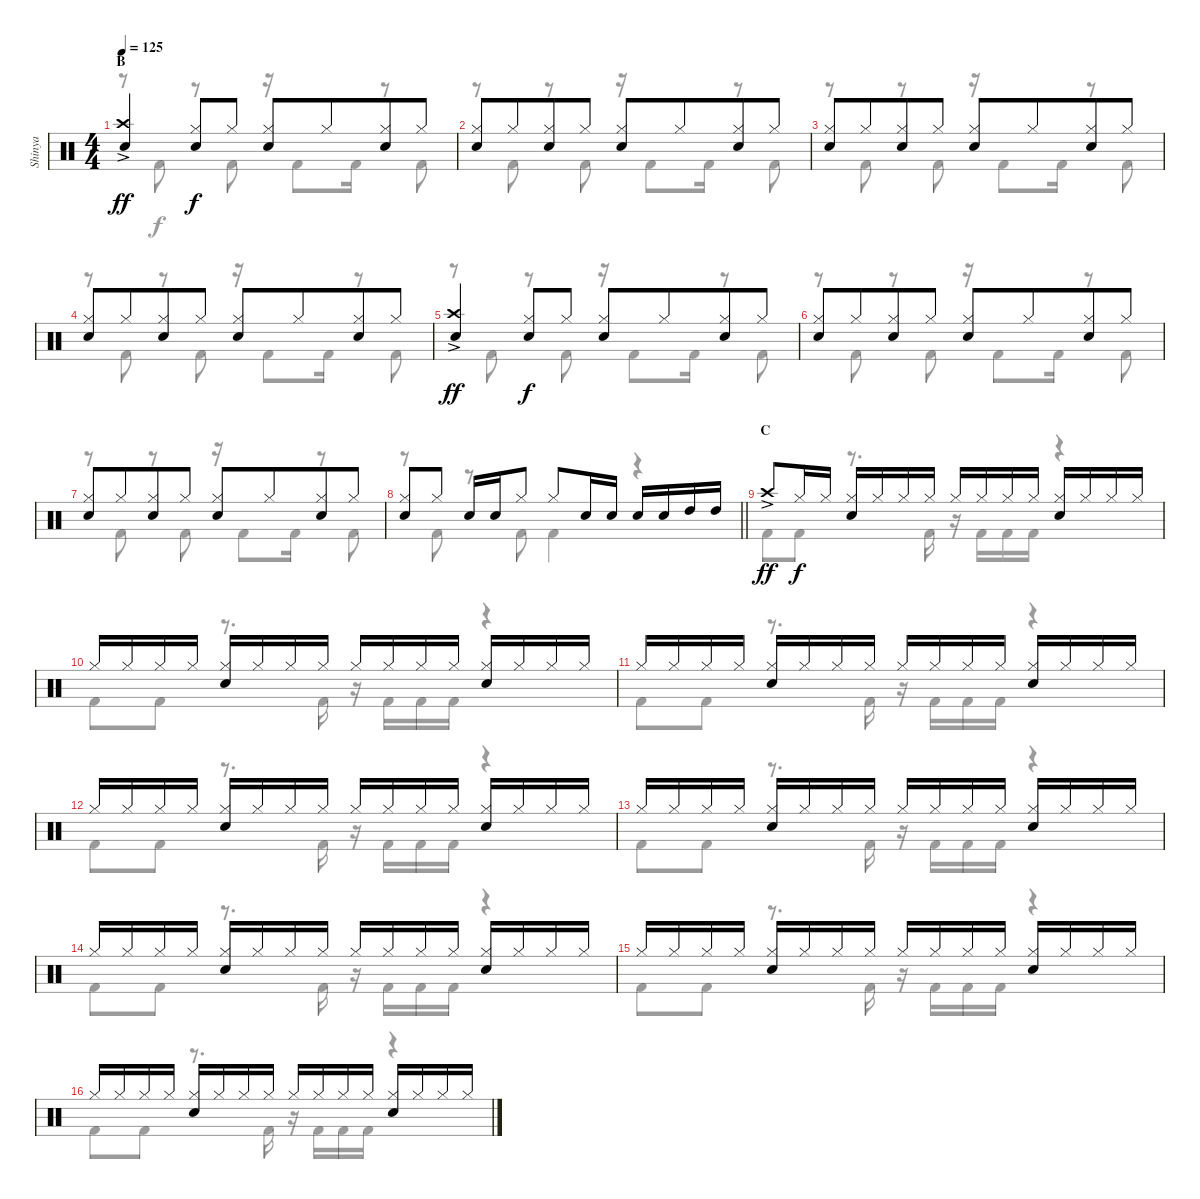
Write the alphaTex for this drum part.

\track ("Shinya" "Shinya") {instrument percussion}
\staff {score}
\articulation defaults
\voice
\ts (4 4)
\section ("" "B")
\tempo 125
\clef neutral
\ks c
("Crash high (hit)"{ac} "Snare (hit) 2").4{dy ff} ("Hi-Hat (closed)" "Snare (hit) 2").8{dy f} "Hi-Hat (closed)".8 ("Hi-Hat (closed)" "Snare (hit) 2").8 "Hi-Hat (closed)".8{beam merge} ("Hi-Hat (closed)" "Snare (hit) 2").8 "Hi-Hat (closed)".8 |
("Hi-Hat (closed)" "Snare (hit) 2").8 "Hi-Hat (closed)".8{beam merge} ("Hi-Hat (closed)" "Snare (hit) 2").8 "Hi-Hat (closed)".8 ("Hi-Hat (closed)" "Snare (hit) 2").8 "Hi-Hat (closed)".8{beam merge} ("Hi-Hat (closed)" "Snare (hit) 2").8 "Hi-Hat (closed)".8 |
("Hi-Hat (closed)" "Snare (hit) 2").8 "Hi-Hat (closed)".8{beam merge} ("Hi-Hat (closed)" "Snare (hit) 2").8 "Hi-Hat (closed)".8 ("Hi-Hat (closed)" "Snare (hit) 2").8 "Hi-Hat (closed)".8{beam merge} ("Hi-Hat (closed)" "Snare (hit) 2").8 "Hi-Hat (closed)".8 |
("Hi-Hat (closed)" "Snare (hit) 2").8 "Hi-Hat (closed)".8{beam merge} ("Hi-Hat (closed)" "Snare (hit) 2").8 "Hi-Hat (closed)".8 ("Hi-Hat (closed)" "Snare (hit) 2").8 "Hi-Hat (closed)".8{beam merge} ("Hi-Hat (closed)" "Snare (hit) 2").8 "Hi-Hat (closed)".8 |
("Crash high (hit)"{ac} "Snare (hit) 2").4{dy ff} ("Hi-Hat (closed)" "Snare (hit) 2").8{dy f} "Hi-Hat (closed)".8 ("Hi-Hat (closed)" "Snare (hit) 2").8 "Hi-Hat (closed)".8{beam merge} ("Hi-Hat (closed)" "Snare (hit) 2").8 "Hi-Hat (closed)".8 |
("Hi-Hat (closed)" "Snare (hit) 2").8 "Hi-Hat (closed)".8{beam merge} ("Hi-Hat (closed)" "Snare (hit) 2").8 "Hi-Hat (closed)".8 ("Hi-Hat (closed)" "Snare (hit) 2").8 "Hi-Hat (closed)".8{beam merge} ("Hi-Hat (closed)" "Snare (hit) 2").8 "Hi-Hat (closed)".8 |
("Hi-Hat (closed)" "Snare (hit) 2").8 "Hi-Hat (closed)".8{beam merge} ("Hi-Hat (closed)" "Snare (hit) 2").8 "Hi-Hat (closed)".8 ("Hi-Hat (closed)" "Snare (hit) 2").8 "Hi-Hat (closed)".8{beam merge} ("Hi-Hat (closed)" "Snare (hit) 2").8 "Hi-Hat (closed)".8 |
\barLineRight lightlight
("Hi-Hat (closed)" "Snare (hit) 2").8 "Hi-Hat (closed)".8 "Snare (hit) 2".16 "Snare (hit) 2".16 "Hi-Hat (closed)".8 "Hi-Hat (closed)".8 "Snare (hit) 2".16 "Snare (hit) 2".16 "Snare (hit) 2".16 "Snare (hit) 2".16 "High Tom (hit)".16 "High Tom (hit)".16 |
\section ("" "C")
"Crash high (hit)"{ac}.8{dy ff} "Hi-Hat (closed)".16{dy f} "Hi-Hat (closed)".16 ("Hi-Hat (closed)" "Snare (hit) 2").16 "Hi-Hat (closed)".16 "Hi-Hat (closed)".16 "Hi-Hat (closed)".16 "Hi-Hat (closed)".16 "Hi-Hat (closed)".16 "Hi-Hat (closed)".16 "Hi-Hat (closed)".16 ("Hi-Hat (closed)" "Snare (hit) 2").16 "Hi-Hat (closed)".16 "Hi-Hat (closed)".16 "Hi-Hat (closed)".16 |
"Hi-Hat (closed)".16 "Hi-Hat (closed)".16 "Hi-Hat (closed)".16 "Hi-Hat (closed)".16 ("Hi-Hat (closed)" "Snare (hit) 2").16 "Hi-Hat (closed)".16 "Hi-Hat (closed)".16 "Hi-Hat (closed)".16 "Hi-Hat (closed)".16 "Hi-Hat (closed)".16 "Hi-Hat (closed)".16 "Hi-Hat (closed)".16 ("Hi-Hat (closed)" "Snare (hit) 2").16 "Hi-Hat (closed)".16 "Hi-Hat (closed)".16 "Hi-Hat (closed)".16 |
"Hi-Hat (closed)".16 "Hi-Hat (closed)".16 "Hi-Hat (closed)".16 "Hi-Hat (closed)".16 ("Hi-Hat (closed)" "Snare (hit) 2").16 "Hi-Hat (closed)".16 "Hi-Hat (closed)".16 "Hi-Hat (closed)".16 "Hi-Hat (closed)".16 "Hi-Hat (closed)".16 "Hi-Hat (closed)".16 "Hi-Hat (closed)".16 ("Hi-Hat (closed)" "Snare (hit) 2").16 "Hi-Hat (closed)".16 "Hi-Hat (closed)".16 "Hi-Hat (closed)".16 |
"Hi-Hat (closed)".16 "Hi-Hat (closed)".16 "Hi-Hat (closed)".16 "Hi-Hat (closed)".16 ("Hi-Hat (closed)" "Snare (hit) 2").16 "Hi-Hat (closed)".16 "Hi-Hat (closed)".16 "Hi-Hat (closed)".16 "Hi-Hat (closed)".16 "Hi-Hat (closed)".16 "Hi-Hat (closed)".16 "Hi-Hat (closed)".16 ("Hi-Hat (closed)" "Snare (hit) 2").16 "Hi-Hat (closed)".16 "Hi-Hat (closed)".16 "Hi-Hat (closed)".16 |
"Hi-Hat (closed)".16 "Hi-Hat (closed)".16 "Hi-Hat (closed)".16 "Hi-Hat (closed)".16 ("Hi-Hat (closed)" "Snare (hit) 2").16 "Hi-Hat (closed)".16 "Hi-Hat (closed)".16 "Hi-Hat (closed)".16 "Hi-Hat (closed)".16 "Hi-Hat (closed)".16 "Hi-Hat (closed)".16 "Hi-Hat (closed)".16 ("Hi-Hat (closed)" "Snare (hit) 2").16 "Hi-Hat (closed)".16 "Hi-Hat (closed)".16 "Hi-Hat (closed)".16 |
"Hi-Hat (closed)".16 "Hi-Hat (closed)".16 "Hi-Hat (closed)".16 "Hi-Hat (closed)".16 ("Hi-Hat (closed)" "Snare (hit) 2").16 "Hi-Hat (closed)".16 "Hi-Hat (closed)".16 "Hi-Hat (closed)".16 "Hi-Hat (closed)".16 "Hi-Hat (closed)".16 "Hi-Hat (closed)".16 "Hi-Hat (closed)".16 ("Hi-Hat (closed)" "Snare (hit) 2").16 "Hi-Hat (closed)".16 "Hi-Hat (closed)".16 "Hi-Hat (closed)".16 |
"Hi-Hat (closed)".16 "Hi-Hat (closed)".16 "Hi-Hat (closed)".16 "Hi-Hat (closed)".16 ("Hi-Hat (closed)" "Snare (hit) 2").16 "Hi-Hat (closed)".16 "Hi-Hat (closed)".16 "Hi-Hat (closed)".16 "Hi-Hat (closed)".16 "Hi-Hat (closed)".16 "Hi-Hat (closed)".16 "Hi-Hat (closed)".16 ("Hi-Hat (closed)" "Snare (hit) 2").16 "Hi-Hat (closed)".16 "Hi-Hat (closed)".16 "Hi-Hat (closed)".16 |
"Hi-Hat (closed)".16 "Hi-Hat (closed)".16 "Hi-Hat (closed)".16 "Hi-Hat (closed)".16 ("Hi-Hat (closed)" "Snare (hit) 2").16 "Hi-Hat (closed)".16 "Hi-Hat (closed)".16 "Hi-Hat (closed)".16 "Hi-Hat (closed)".16 "Hi-Hat (closed)".16 "Hi-Hat (closed)".16 "Hi-Hat (closed)".16 ("Hi-Hat (closed)" "Snare (hit) 2").16 "Hi-Hat (closed)".16 "Hi-Hat (closed)".16 "Hi-Hat (closed)".16
\voice
\clef neutral
\ottava regular
\simile none
\ks c
r.8{dy f} "Kick (hit) 2".8 r.8 "Kick (hit) 2".8 r.16 "Kick (hit) 2".8 "Kick (hit) 2".16 r.8 "Kick (hit) 2".8 |
r.8 "Kick (hit) 2".8 r.8 "Kick (hit) 2".8 r.16 "Kick (hit) 2".8 "Kick (hit) 2".16 r.8 "Kick (hit) 2".8 |
r.8 "Kick (hit) 2".8 r.8 "Kick (hit) 2".8 r.16 "Kick (hit) 2".8 "Kick (hit) 2".16 r.8 "Kick (hit) 2".8 |
r.8 "Kick (hit) 2".8 r.8 "Kick (hit) 2".8 r.16 "Kick (hit) 2".8 "Kick (hit) 2".16 r.8 "Kick (hit) 2".8 |
r.8 "Kick (hit) 2".8 r.8 "Kick (hit) 2".8 r.16 "Kick (hit) 2".8 "Kick (hit) 2".16 r.8 "Kick (hit) 2".8 |
r.8 "Kick (hit) 2".8 r.8 "Kick (hit) 2".8 r.16 "Kick (hit) 2".8 "Kick (hit) 2".16 r.8 "Kick (hit) 2".8 |
r.8 "Kick (hit) 2".8 r.8 "Kick (hit) 2".8 r.16 "Kick (hit) 2".8 "Kick (hit) 2".16 r.8 "Kick (hit) 2".8 |
\barLineRight lightlight
r.8 "Kick (hit) 2".8 r.8 "Kick (hit) 2".8 "Kick (hit) 2".4 r.4 |
"Kick (hit) 2".8 "Kick (hit) 2".8 r.8{d} "Kick (hit) 2".16 r.16 "Kick (hit) 2".16 "Kick (hit) 2".16 "Kick (hit) 2".16 r.4 |
"Kick (hit) 2".8 "Kick (hit) 2".8 r.8{d} "Kick (hit) 2".16 r.16 "Kick (hit) 2".16 "Kick (hit) 2".16 "Kick (hit) 2".16 r.4 |
"Kick (hit) 2".8 "Kick (hit) 2".8 r.8{d} "Kick (hit) 2".16 r.16 "Kick (hit) 2".16 "Kick (hit) 2".16 "Kick (hit) 2".16 r.4 |
"Kick (hit) 2".8 "Kick (hit) 2".8 r.8{d} "Kick (hit) 2".16 r.16 "Kick (hit) 2".16 "Kick (hit) 2".16 "Kick (hit) 2".16 r.4 |
"Kick (hit) 2".8 "Kick (hit) 2".8 r.8{d} "Kick (hit) 2".16 r.16 "Kick (hit) 2".16 "Kick (hit) 2".16 "Kick (hit) 2".16 r.4 |
"Kick (hit) 2".8 "Kick (hit) 2".8 r.8{d} "Kick (hit) 2".16 r.16 "Kick (hit) 2".16 "Kick (hit) 2".16 "Kick (hit) 2".16 r.4 |
"Kick (hit) 2".8 "Kick (hit) 2".8 r.8{d} "Kick (hit) 2".16 r.16 "Kick (hit) 2".16 "Kick (hit) 2".16 "Kick (hit) 2".16 r.4 |
"Kick (hit) 2".8 "Kick (hit) 2".8 r.8{d} "Kick (hit) 2".16 r.16 "Kick (hit) 2".16 "Kick (hit) 2".16 "Kick (hit) 2".16 r.4
